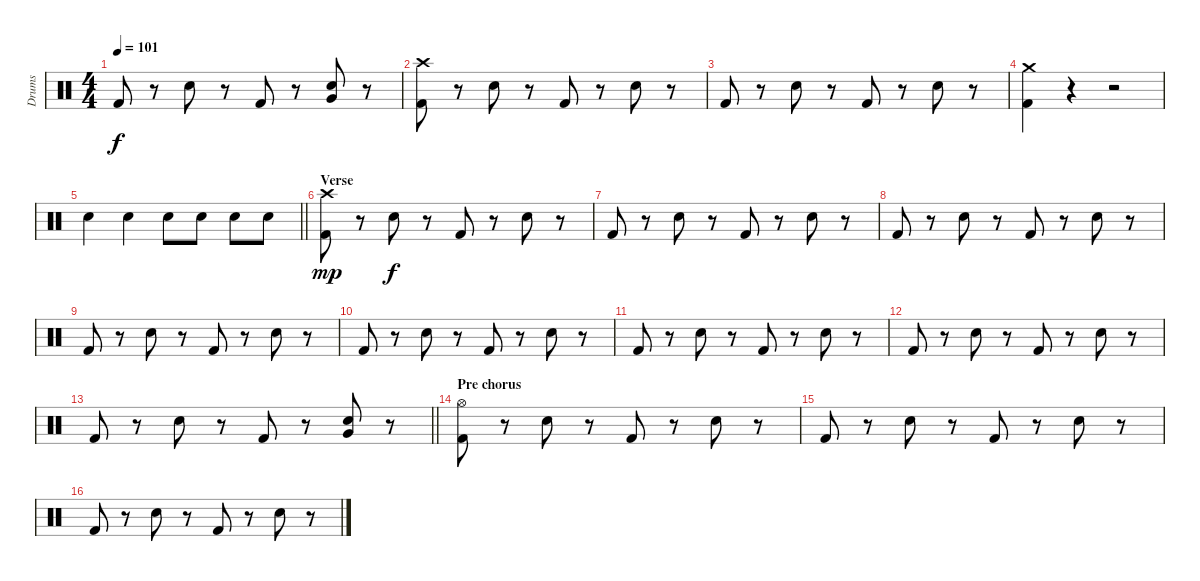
\track ("Drums" "Drums") {instrument percussion}
\staff {score}
\articulation defaults
\ts (4 4)
\tempo 101
\clef neutral
\ks c "Kick (hit) 2".8{dy f}
r.8 "Electric Snare (hit)".8 r.8 "Kick (hit) 2".8 r.8 ("Electric Snare (hit)" "Very Low Tom (hit)").8 r.8 |
("Crash high (hit)" "Kick (hit) 2").8 r.8 "Electric Snare (hit)".8 r.8 "Kick (hit) 2".8 r.8 "Electric Snare (hit)".8 r.8 |
"Kick (hit) 2".8 r.8 "Electric Snare (hit)".8 r.8 "Kick (hit) 2".8 r.8 "Electric Snare (hit)".8 r.8 |
("Crash medium (hit)" "Kick (hit) 2").4 r.4 r.2 |
\barLineRight lightlight "Electric Snare (hit)".4 "Electric Snare (hit)".4 "Electric Snare (hit)".8 "Electric Snare (hit)".8 "Electric Snare (hit)".8 "Electric Snare (hit)".8
|
\section ("" "Verse")
("Crash high (hit)" "Kick (hit) 2").8{dy mp} r.8 "Electric Snare (hit)".8{dy f} r.8 "Kick (hit) 2".8 r.8 "Electric Snare (hit)".8 r.8 |
"Kick (hit) 2".8 r.8 "Electric Snare (hit)".8 r.8 "Kick (hit) 2".8 r.8 "Electric Snare (hit)".8 r.8 |
"Kick (hit) 2".8 r.8 "Electric Snare (hit)".8 r.8 "Kick (hit) 2".8 r.8 "Electric Snare (hit)".8 r.8 |
"Kick (hit) 2".8 r.8 "Electric Snare (hit)".8 r.8 "Kick (hit) 2".8 r.8 "Electric Snare (hit)".8 r.8 |
"Kick (hit) 2".8 r.8 "Electric Snare (hit)".8 r.8 "Kick (hit) 2".8 r.8 "Electric Snare (hit)".8 r.8 |
"Kick (hit) 2".8 r.8 "Electric Snare (hit)".8 r.8 "Kick (hit) 2".8 r.8 "Electric Snare (hit)".8 r.8 |
"Kick (hit) 2".8 r.8 "Electric Snare (hit)".8 r.8 "Kick (hit) 2".8 r.8 "Electric Snare (hit)".8 r.8 |
\barLineRight lightlight "Kick (hit) 2".8
r.8 "Electric Snare (hit)".8 r.8 "Kick (hit) 2".8 r.8 ("Electric Snare (hit)" "Very Low Tom (hit)").8 r.8 |
\section ("" "Pre chorus")
("Hi-Hat (open)" "Kick (hit) 2").8 r.8 "Electric Snare (hit)".8 r.8 "Kick (hit) 2".8 r.8 "Electric Snare (hit)".8 r.8 |
"Kick (hit) 2".8 r.8 "Electric Snare (hit)".8 r.8 "Kick (hit) 2".8 r.8 "Electric Snare (hit)".8 r.8 |
"Kick (hit) 2".8 r.8 "Electric Snare (hit)".8 r.8 "Kick (hit) 2".8 r.8 "Electric Snare (hit)".8 r.8
